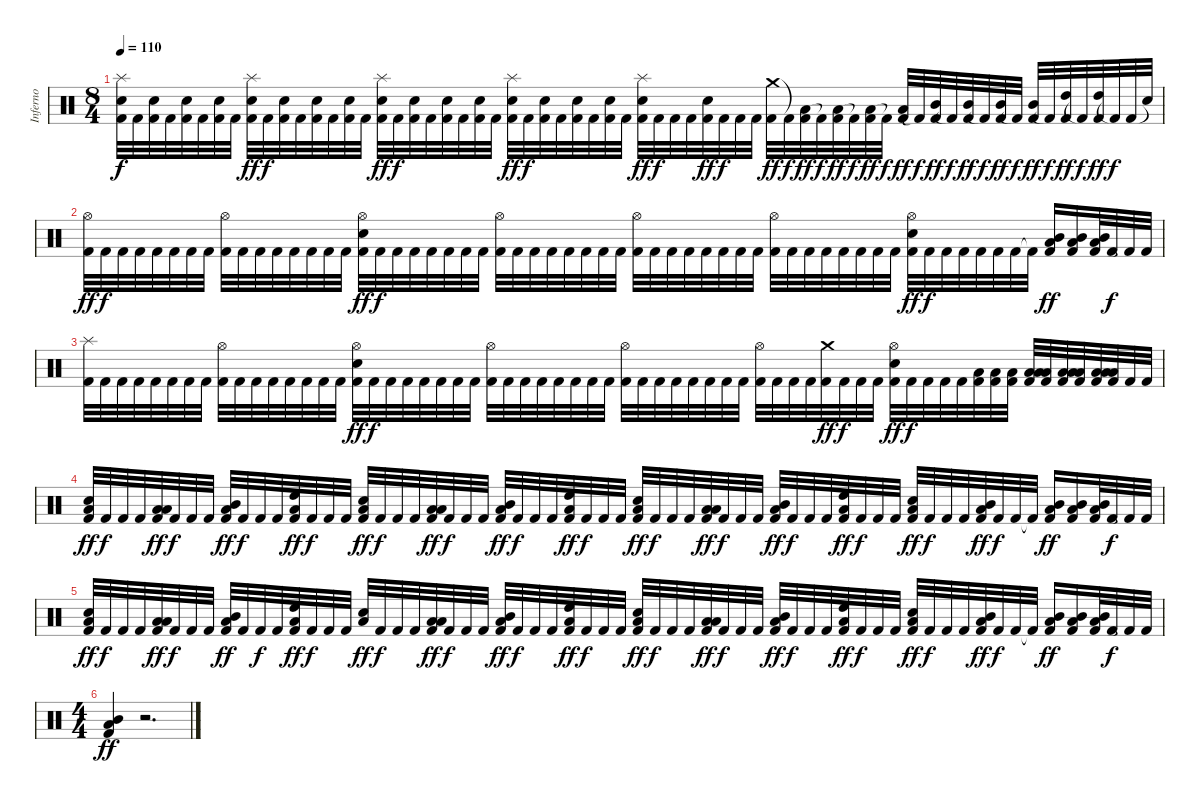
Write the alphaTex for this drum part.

\track ("Inferno" "Inferno") {instrument percussion}
\staff {score}
\articulation defaults
\ts (8 4)
\tempo 110
\clef neutral
\ks c
("Splash (hit)" "Snare (hit) 2" "Kick (hit) 2").32{dy f} "Kick (hit) 2".32 ("Snare (hit) 2" "Kick (hit) 2").32 "Kick (hit) 2".32 ("Snare (hit) 2" "Kick (hit) 2").32 "Kick (hit) 2".32 ("Snare (hit) 2" "Kick (hit) 2").32 "Kick (hit) 2".32 ("Splash (hit)" "Snare (hit) 2" "Kick (hit) 2").32{dy ff} "Kick (hit) 2".32{dy f} ("Snare (hit) 2" "Kick (hit) 2").32 "Kick (hit) 2".32 ("Snare (hit) 2" "Kick (hit) 2").32 "Kick (hit) 2".32 ("Snare (hit) 2" "Kick (hit) 2").32 "Kick (hit) 2".32 ("Splash (hit)" "Snare (hit) 2" "Kick (hit) 2").32{dy ff} "Kick (hit) 2".32{dy f} ("Snare (hit) 2" "Kick (hit) 2").32 "Kick (hit) 2".32 ("Snare (hit) 2" "Kick (hit) 2").32 "Kick (hit) 2".32 ("Snare (hit) 2" "Kick (hit) 2").32 "Kick (hit) 2".32 ("Splash (hit)" "Snare (hit) 2" "Kick (hit) 2").32{dy ff} "Kick (hit) 2".32{dy f} ("Snare (hit) 2" "Kick (hit) 2").32 "Kick (hit) 2".32 ("Snare (hit) 2" "Kick (hit) 2").32 "Kick (hit) 2".32 ("Snare (hit) 2" "Kick (hit) 2").32 "Kick (hit) 2".32 ("Splash (hit)" "Snare (hit) 2" "Kick (hit) 2").32{dy ff} "Kick (hit) 2".32{dy f} "Kick (hit) 2".32 "Kick (hit) 2".32 ("Snare (hit) 2" "Kick (hit) 2").32{dy ff} "Kick (hit) 2".32{dy f} "Kick (hit) 2".32 "Kick (hit) 2".32 ("Crash medium (hit)" "Kick (hit) 2").32{dy ff} "Kick (hit) 2"{t}.32{dy f} ("Low Tom (hit)" "Kick (hit) 2").32{dy ff} "Kick (hit) 2"{t}.32{dy f} ("Low Tom (hit)" "Kick (hit) 2").32{dy ff} "Kick (hit) 2"{t}.32{dy f} ("Low Tom (hit)" "Kick (hit) 2").32{dy ff} "Kick (hit) 2"{t}.32{dy f} ("Low Tom (hit)" "Kick (hit) 2").32{dy ff} "Kick (hit) 2"{t}.32{dy f} ("Mid Tom (hit)" "Kick (hit) 2").32{dy ff} "Kick (hit) 2"{t}.32{dy f} ("Mid Tom (hit)" "Kick (hit) 2").32{dy ff} "Kick (hit) 2"{t}.32{dy f} ("Mid Tom (hit)" "Kick (hit) 2").32{dy ff} "Kick (hit) 2"{t}.32{dy f} ("Mid Tom (hit)" "Kick (hit) 2").32{dy ff} "Kick (hit) 2"{t}.32{dy f} ("High Tom (hit)" "Kick (hit) 2").32{dy ff} "Kick (hit) 2"{t}.32{dy f} ("High Tom (hit)" "Kick (hit) 2").32{dy ff} "Kick (hit) 2"{t}.32{dy f} "Kick (hit) 2".32 "Snare (hit)"{t}.32 |
("Hi-Hat (open)" "Kick (hit) 2").32{dy ff} "Kick (hit) 2".32{dy f} "Kick (hit) 2".32 "Kick (hit) 2".32 "Kick (hit) 2".32 "Kick (hit) 2".32 "Kick (hit) 2".32 "Kick (hit) 2".32 ("Hi-Hat (open)" "Kick (hit) 2").32 "Kick (hit) 2".32 "Kick (hit) 2".32 "Kick (hit) 2".32 "Kick (hit) 2".32 "Kick (hit) 2".32 "Kick (hit) 2".32 "Kick (hit) 2".32 ("Snare (hit) 2" "Hi-Hat (open)" "Kick (hit) 2").32{dy ff} "Kick (hit) 2".32{dy f} "Kick (hit) 2".32 "Kick (hit) 2".32 "Kick (hit) 2".32 "Kick (hit) 2".32 "Kick (hit) 2".32 "Kick (hit) 2".32 ("Hi-Hat (open)" "Kick (hit) 2").32 "Kick (hit) 2".32 "Kick (hit) 2".32 "Kick (hit) 2".32 "Kick (hit) 2".32 "Kick (hit) 2".32 "Kick (hit) 2".32 "Kick (hit) 2".32 ("Hi-Hat (open)" "Kick (hit) 2").32 "Kick (hit) 2".32 "Kick (hit) 2".32 "Kick (hit) 2".32 "Kick (hit) 2".32 "Kick (hit) 2".32 "Kick (hit) 2".32 "Kick (hit) 2".32 ("Hi-Hat (open)" "Kick (hit) 2").32 "Kick (hit) 2".32 "Kick (hit) 2".32 "Kick (hit) 2".32 "Kick (hit) 2".32 "Kick (hit) 2".32 "Kick (hit) 2".32 "Kick (hit) 2".32 ("Snare (hit) 2" "Hi-Hat (open)" "Kick (hit) 2").32{dy ff} "Kick (hit) 2".32{dy f} "Kick (hit) 2".32 "Kick (hit) 2".32 "Kick (hit) 2".32 "Kick (hit) 2".32 "Kick (hit) 2".32 "Kick (hit) 2"{t}.32 ("Low Floor Tom (hit)" "Mid Tom (hit)" "Kick (hit) 2").16{dy ff} ("Low Floor Tom (hit)" "Mid Tom (hit)" "Kick (hit) 2").16 ("Low Floor Tom (hit)" "Mid Tom (hit)" "Kick (hit) 2").32 "Kick (hit) 2"{t}.32{dy f} "Kick (hit) 2".32 "Kick (hit) 2".32 |
("Splash (hit)" "Kick (hit) 2").32 "Kick (hit) 2".32 "Kick (hit) 2".32 "Kick (hit) 2".32 "Kick (hit) 2".32 "Kick (hit) 2".32 "Kick (hit) 2".32 "Kick (hit) 2".32 ("Hi-Hat (open)" "Kick (hit) 2").32 "Kick (hit) 2".32 "Kick (hit) 2".32 "Kick (hit) 2".32 "Kick (hit) 2".32 "Kick (hit) 2".32 "Kick (hit) 2".32 "Kick (hit) 2".32 ("Snare (hit) 2" "Hi-Hat (open)" "Kick (hit) 2").32{dy ff} "Kick (hit) 2".32{dy f} "Kick (hit) 2".32 "Kick (hit) 2".32 "Kick (hit) 2".32 "Kick (hit) 2".32 "Kick (hit) 2".32 "Kick (hit) 2".32 ("Hi-Hat (open)" "Kick (hit) 2").32 "Kick (hit) 2".32 "Kick (hit) 2".32 "Kick (hit) 2".32 "Kick (hit) 2".32 "Kick (hit) 2".32 "Kick (hit) 2".32 "Kick (hit) 2".32 ("Hi-Hat (open)" "Kick (hit) 2").32 "Kick (hit) 2".32 "Kick (hit) 2".32 "Kick (hit) 2".32 "Kick (hit) 2".32 "Kick (hit) 2".32 "Kick (hit) 2".32 "Kick (hit) 2".32 ("Hi-Hat (open)" "Kick (hit) 2").32 "Kick (hit) 2".32 "Kick (hit) 2".32 "Kick (hit) 2".32 ("Crash medium (hit)" "Kick (hit) 2").32{dy ff} "Kick (hit) 2".32{dy f} "Kick (hit) 2".32 "Kick (hit) 2".32 ("Snare (hit) 2" "Hi-Hat (open)" "Kick (hit) 2").32{dy ff} "Kick (hit) 2".32{dy f} "Kick (hit) 2".32 "Kick (hit) 2".32 "Kick (hit) 2".32 ("Low Tom (hit)" "Kick (hit) 2").32 ("Low Tom (hit)" "Kick (hit) 2").32 ("Low Tom (hit)" "Kick (hit) 2").32 ("Low Floor Tom (hit)" "Low Tom (hit)" "Kick (hit) 2").32 ("Low Tom (hit)" "Kick (hit) 2").32 ("Low Floor Tom (hit)" "Low Tom (hit)" "Kick (hit) 2").32 ("Low Tom (hit)" "Kick (hit) 2").32 ("Low Floor Tom (hit)" "Low Tom (hit)" "Kick (hit) 2").32 ("Low Tom (hit)" "Kick (hit) 2").32 "Kick (hit) 2".32 "Kick (hit) 2".32 |
("Snare (hit) 2" "Low Floor Tom (hit)" "Kick (hit) 2").32{dy ff} "Kick (hit) 2".32{dy f} "Kick (hit) 2".32 "Kick (hit) 2".32 ("Low Tom (hit)" "Low Floor Tom (hit)" "Kick (hit) 2").32{dy ff} "Kick (hit) 2".32{dy f} "Kick (hit) 2".32 "Kick (hit) 2".32 ("Mid Tom (hit)" "Low Floor Tom (hit)" "Kick (hit) 2").32{dy ff} "Kick (hit) 2".32{dy f} "Kick (hit) 2".32 "Kick (hit) 2".32 ("High Tom (hit)" "Low Floor Tom (hit)" "Kick (hit) 2").32{dy ff} "Kick (hit) 2".32{dy f} "Kick (hit) 2".32 "Kick (hit) 2".32 ("Snare (hit) 2" "Low Floor Tom (hit)" "Kick (hit) 2").32{dy ff} "Kick (hit) 2".32{dy f} "Kick (hit) 2".32 "Kick (hit) 2".32 ("Low Tom (hit)" "Low Floor Tom (hit)" "Kick (hit) 2").32{dy ff} "Kick (hit) 2".32{dy f} "Kick (hit) 2".32 "Kick (hit) 2".32 ("Mid Tom (hit)" "Low Floor Tom (hit)" "Kick (hit) 2").32{dy ff} "Kick (hit) 2".32{dy f} "Kick (hit) 2".32 "Kick (hit) 2".32 ("High Tom (hit)" "Low Floor Tom (hit)" "Kick (hit) 2").32{dy ff} "Kick (hit) 2".32{dy f} "Kick (hit) 2".32 "Kick (hit) 2".32 ("Snare (hit) 2" "Low Floor Tom (hit)" "Kick (hit) 2").32{dy ff} "Kick (hit) 2".32{dy f} "Kick (hit) 2".32 "Kick (hit) 2".32 ("Low Tom (hit)" "Low Floor Tom (hit)" "Kick (hit) 2").32{dy ff} "Kick (hit) 2".32{dy f} "Kick (hit) 2".32 "Kick (hit) 2".32 ("Mid Tom (hit)" "Low Floor Tom (hit)" "Kick (hit) 2").32{dy ff} "Kick (hit) 2".32{dy f} "Kick (hit) 2".32 "Kick (hit) 2".32 ("High Tom (hit)" "Low Floor Tom (hit)" "Kick (hit) 2").32{dy ff} "Kick (hit) 2".32{dy f} "Kick (hit) 2".32 "Kick (hit) 2".32 ("Snare (hit) 2" "Low Floor Tom (hit)" "Kick (hit) 2").32{dy ff} "Kick (hit) 2".32{dy f} "Kick (hit) 2".32 "Kick (hit) 2".32 ("Mid Tom (hit)" "Low Floor Tom (hit)" "Kick (hit) 2").32{dy ff} "Kick (hit) 2".32{dy f} "Kick (hit) 2".32 "Kick (hit) 2"{t}.32 ("Low Floor Tom (hit)" "Mid Tom (hit)" "Kick (hit) 2").16{dy ff} ("Low Floor Tom (hit)" "Mid Tom (hit)" "Kick (hit) 2").16 ("Low Floor Tom (hit)" "Mid Tom (hit)" "Kick (hit) 2").32 "Kick (hit) 2"{t}.32{dy f} "Kick (hit) 2".32 "Kick (hit) 2".32 |
("Snare (hit) 2" "Low Floor Tom (hit)" "Kick (hit) 2").32{dy ff} "Kick (hit) 2".32{dy f} "Kick (hit) 2".32 "Kick (hit) 2".32 ("Low Tom (hit)" "Low Floor Tom (hit)" "Kick (hit) 2").32{dy ff} "Kick (hit) 2".32{dy f} "Kick (hit) 2".32 "Kick (hit) 2".32 ("Mid Tom (hit)" "Low Floor Tom (hit)" "Kick (hit) 2").32{dy ff} "Kick (hit) 2".32 "Kick (hit) 2".32{dy f} "Kick (hit) 2".32 ("High Tom (hit)" "Low Floor Tom (hit)" "Kick (hit) 2").32{dy ff} "Kick (hit) 2".32{dy f} "Kick (hit) 2".32 "Kick (hit) 2".32 ("Snare (hit) 2" "Low Floor Tom (hit)").32{dy ff} "Kick (hit) 2".32{dy f} "Kick (hit) 2".32 "Kick (hit) 2".32 ("Low Tom (hit)" "Low Floor Tom (hit)" "Kick (hit) 2").32{dy ff} "Kick (hit) 2".32{dy f} "Kick (hit) 2".32 "Kick (hit) 2".32 ("Mid Tom (hit)" "Low Floor Tom (hit)" "Kick (hit) 2").32{dy ff} "Kick (hit) 2".32{dy f} "Kick (hit) 2".32 "Kick (hit) 2".32 ("High Tom (hit)" "Low Floor Tom (hit)" "Kick (hit) 2").32{dy ff} "Kick (hit) 2".32{dy f} "Kick (hit) 2".32 "Kick (hit) 2".32 ("Snare (hit) 2" "Low Floor Tom (hit)" "Kick (hit) 2").32{dy ff} "Kick (hit) 2".32{dy f} "Kick (hit) 2".32 "Kick (hit) 2".32 ("Low Tom (hit)" "Low Floor Tom (hit)" "Kick (hit) 2").32{dy ff} "Kick (hit) 2".32{dy f} "Kick (hit) 2".32 "Kick (hit) 2".32 ("Mid Tom (hit)" "Low Floor Tom (hit)" "Kick (hit) 2").32{dy ff} "Kick (hit) 2".32{dy f} "Kick (hit) 2".32 "Kick (hit) 2".32 ("High Tom (hit)" "Low Floor Tom (hit)" "Kick (hit) 2").32{dy ff} "Kick (hit) 2".32{dy f} "Kick (hit) 2".32 "Kick (hit) 2".32 ("Snare (hit) 2" "Low Floor Tom (hit)" "Kick (hit) 2").32{dy ff} "Kick (hit) 2".32{dy f} "Kick (hit) 2".32 "Kick (hit) 2".32 ("Mid Tom (hit)" "Low Floor Tom (hit)" "Kick (hit) 2").32{dy ff} "Kick (hit) 2".32{dy f} "Kick (hit) 2".32 "Kick (hit) 2"{t}.32 ("Low Floor Tom (hit)" "Mid Tom (hit)" "Kick (hit) 2").16{dy ff} ("Low Floor Tom (hit)" "Mid Tom (hit)" "Kick (hit) 2").16 ("Low Floor Tom (hit)" "Mid Tom (hit)" "Kick (hit) 2").32 "Kick (hit) 2"{t}.32{dy f} "Kick (hit) 2".32 "Kick (hit) 2".32 |
\ts (4 4)
("Low Floor Tom (hit)" "Mid Tom (hit)" "Kick (hit) 2").4{dy ff} r.2{d}
